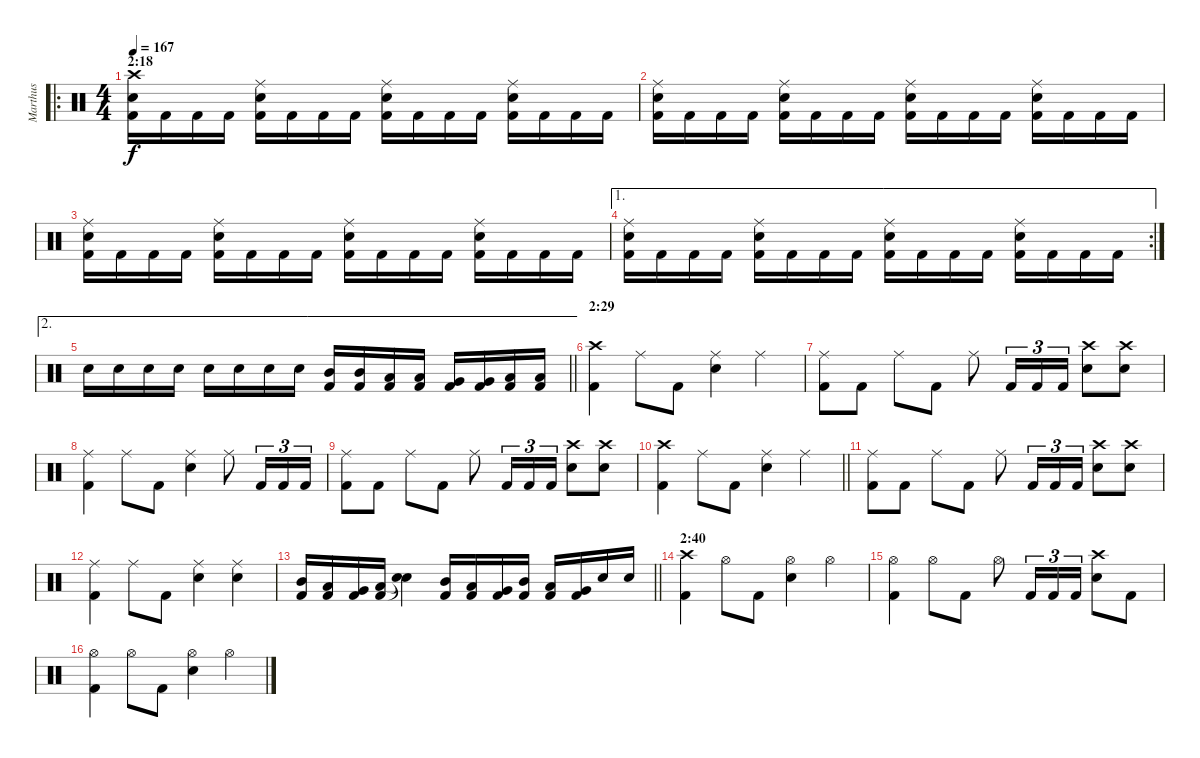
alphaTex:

\track ("Marthus" "Marthus") {instrument percussion}
\staff {score}
\articulation defaults
\ro
\ts (4 4)
\section ("" "2:18")
\tempo 167
\clef neutral
\ks c
("Kick (hit) 2" "Snare (hit) 2" "Crash high (hit)").16{dy f} "Kick (hit) 2".16 "Kick (hit) 2".16 "Kick (hit) 2".16 ("Kick (hit) 2" "Snare (hit) 2" "Ride (middle)").16 "Kick (hit) 2".16 "Kick (hit) 2".16 "Kick (hit) 2".16 ("Kick (hit) 2" "Snare (hit) 2" "Ride (middle)").16 "Kick (hit) 2".16 "Kick (hit) 2".16 "Kick (hit) 2".16 ("Kick (hit) 2" "Snare (hit) 2" "Ride (middle)").16 "Kick (hit) 2".16 "Kick (hit) 2".16 "Kick (hit) 2".16 |
("Kick (hit) 2" "Snare (hit) 2" "Ride (middle)").16 "Kick (hit) 2".16 "Kick (hit) 2".16 "Kick (hit) 2".16 ("Kick (hit) 2" "Snare (hit) 2" "Ride (middle)").16 "Kick (hit) 2".16 "Kick (hit) 2".16 "Kick (hit) 2".16 ("Kick (hit) 2" "Snare (hit) 2" "Ride (middle)").16 "Kick (hit) 2".16 "Kick (hit) 2".16 "Kick (hit) 2".16 ("Kick (hit) 2" "Snare (hit) 2" "Ride (middle)").16 "Kick (hit) 2".16 "Kick (hit) 2".16 "Kick (hit) 2".16 |
("Kick (hit) 2" "Snare (hit) 2" "Ride (middle)").16 "Kick (hit) 2".16 "Kick (hit) 2".16 "Kick (hit) 2".16 ("Kick (hit) 2" "Snare (hit) 2" "Ride (middle)").16 "Kick (hit) 2".16 "Kick (hit) 2".16 "Kick (hit) 2".16 ("Kick (hit) 2" "Snare (hit) 2" "Ride (middle)").16 "Kick (hit) 2".16 "Kick (hit) 2".16 "Kick (hit) 2".16 ("Kick (hit) 2" "Snare (hit) 2" "Ride (middle)").16 "Kick (hit) 2".16 "Kick (hit) 2".16 "Kick (hit) 2".16 |
\ae 1
\rc 2
("Kick (hit) 2" "Snare (hit) 2" "Ride (middle)").16 "Kick (hit) 2".16 "Kick (hit) 2".16 "Kick (hit) 2".16 ("Kick (hit) 2" "Snare (hit) 2" "Ride (middle)").16 "Kick (hit) 2".16 "Kick (hit) 2".16 "Kick (hit) 2".16 ("Kick (hit) 2" "Snare (hit) 2" "Ride (middle)").16 "Kick (hit) 2".16 "Kick (hit) 2".16 "Kick (hit) 2".16 ("Kick (hit) 2" "Snare (hit) 2" "Ride (middle)").16 "Kick (hit) 2".16 "Kick (hit) 2".16 "Kick (hit) 2".16 |
\ae 2
\barLineRight lightlight "Snare (hit) 2".16 "Snare (hit) 2".16 "Snare (hit) 2".16 "Snare (hit) 2".16 "Snare (hit) 2".16 "Snare (hit) 2".16 "Snare (hit) 2".16 "Snare (hit) 2".16
("Kick (hit) 2" "Mid Tom (hit)").16 ("Kick (hit) 2" "Mid Tom (hit)").16 ("Kick (hit) 2" "Low Tom (hit)").16 ("Kick (hit) 2" "Low Tom (hit)").16 ("Kick (hit) 2" "Very Low Tom (hit)").16 ("Kick (hit) 2" "Very Low Tom (hit)").16 ("Kick (hit) 2" "Low Floor Tom (hit)").16 ("Kick (hit) 2" "Low Floor Tom (hit)").16 |
\section ("" "2:29")
("Kick (hit) 2" "Crash high (hit)").4 "Ride (middle)".8 "Kick (hit) 2".8 ("Snare (hit) 2" "Ride (middle)").4 "Ride (middle)".4 |
("Kick (hit) 2" "Ride (middle)").8 "Kick (hit) 2".8 "Ride (middle)".8 "Kick (hit) 2".8 "Ride (middle)".8 "Kick (hit) 2".16{tu (3 2)} "Kick (hit) 2".16{tu (3 2)} "Kick (hit) 2".16{tu (3 2)} ("Snare (hit) 2" "Crash high (hit)").8 ("Snare (hit) 2" "Crash high (hit)").8 |
("Kick (hit) 2" "Ride (middle)").4 "Ride (middle)".8 "Kick (hit) 2".8 ("Snare (hit) 2" "Ride (middle)").4 "Ride (middle)".8 "Kick (hit) 2".16{tu (3 2)} "Kick (hit) 2".16{tu (3 2)} "Kick (hit) 2".16{tu (3 2)} |
("Kick (hit) 2" "Ride (middle)").8 "Kick (hit) 2".8 "Ride (middle)".8 "Kick (hit) 2".8 "Ride (middle)".8 "Kick (hit) 2".16{tu (3 2)} "Kick (hit) 2".16{tu (3 2)} "Kick (hit) 2".16{tu (3 2)} ("Snare (hit) 2" "Crash high (hit)").8 ("Snare (hit) 2" "Crash high (hit)").8 |
\barLineRight lightlight
("Kick (hit) 2" "Crash high (hit)").4 "Ride (middle)".8 "Kick (hit) 2".8 ("Snare (hit) 2" "Ride (middle)").4 "Ride (middle)".4 |
\section ("" "")
("Kick (hit) 2" "Ride (middle)").8 "Kick (hit) 2".8 "Ride (middle)".8 "Kick (hit) 2".8 "Ride (middle)".8 "Kick (hit) 2".16{tu (3 2)} "Kick (hit) 2".16{tu (3 2)} "Kick (hit) 2".16{tu (3 2)} ("Snare (hit) 2" "Crash high (hit)").8 ("Snare (hit) 2" "Crash high (hit)").8 |
("Kick (hit) 2" "Ride (middle)").4 "Ride (middle)".8 "Kick (hit) 2".8 ("Snare (hit) 2" "Ride (middle)").4 ("Snare (hit) 2" "Ride (middle)").4 |
\barLineRight lightlight
("Kick (hit) 2" "Mid Tom (hit)").16 ("Kick (hit) 2" "Low Tom (hit)").16 ("Kick (hit) 2" "Very Low Tom (hit)").16 ("Kick (hit) 2" "Low Floor Tom (hit)").16 ("Snare (hit)"{t} "Snare (hit)"{t}).4 ("Kick (hit) 2" "Mid Tom (hit)").16 ("Kick (hit) 2" "Low Tom (hit)").16 ("Kick (hit) 2" "Very Low Tom (hit)").16 ("Kick (hit) 2" "Mid Tom (hit)").16 ("Kick (hit) 2" "Low Tom (hit)").16 ("Kick (hit) 2" "Very Low Tom (hit)").16 "Snare (hit) 2".16 "Snare (hit) 2".16 |
\section ("" "2:40")
("Kick (hit) 2" "Crash high (hit)").4 "Hi-Hat (open)".8 "Kick (hit) 2".8 ("Snare (hit) 2" "Hi-Hat (open)").4 "Hi-Hat (open)".4 |
("Kick (hit) 2" "Hi-Hat (open)").4 "Hi-Hat (open)".8 "Kick (hit) 2".8 "Hi-Hat (open)".8 "Kick (hit) 2".16{tu (3 2)} "Kick (hit) 2".16{tu (3 2)} "Kick (hit) 2".16{tu (3 2)} ("Snare (hit) 2" "Crash high (hit)").8 "Kick (hit) 2".8 |
("Kick (hit) 2" "Hi-Hat (open)").4 "Hi-Hat (open)".8 "Kick (hit) 2".8 ("Snare (hit) 2" "Hi-Hat (open)").4 "Hi-Hat (open)".4
